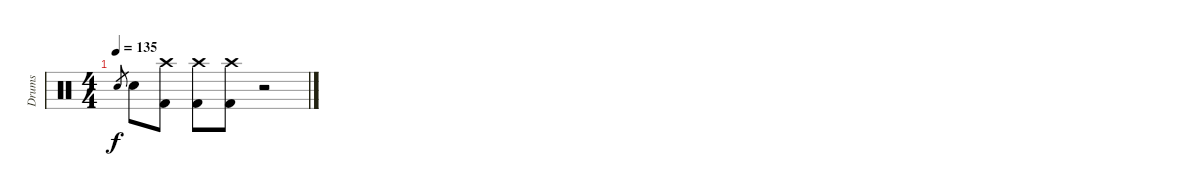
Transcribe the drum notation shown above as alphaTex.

\track ("Drums" "Drums") {instrument percussion}
\staff {score}
\articulation defaults
\ts (4 4)
\tempo 135
\clef neutral
\ks c "Electric Snare (hit)".8{gr dy f} "Electric Snare (hit)".8
("Crash high (hit)" "Kick (hit) 2").8 ("Crash high (hit)" "Kick (hit) 2").8 ("Crash high (hit)" "Kick (hit) 2").8 r.2
